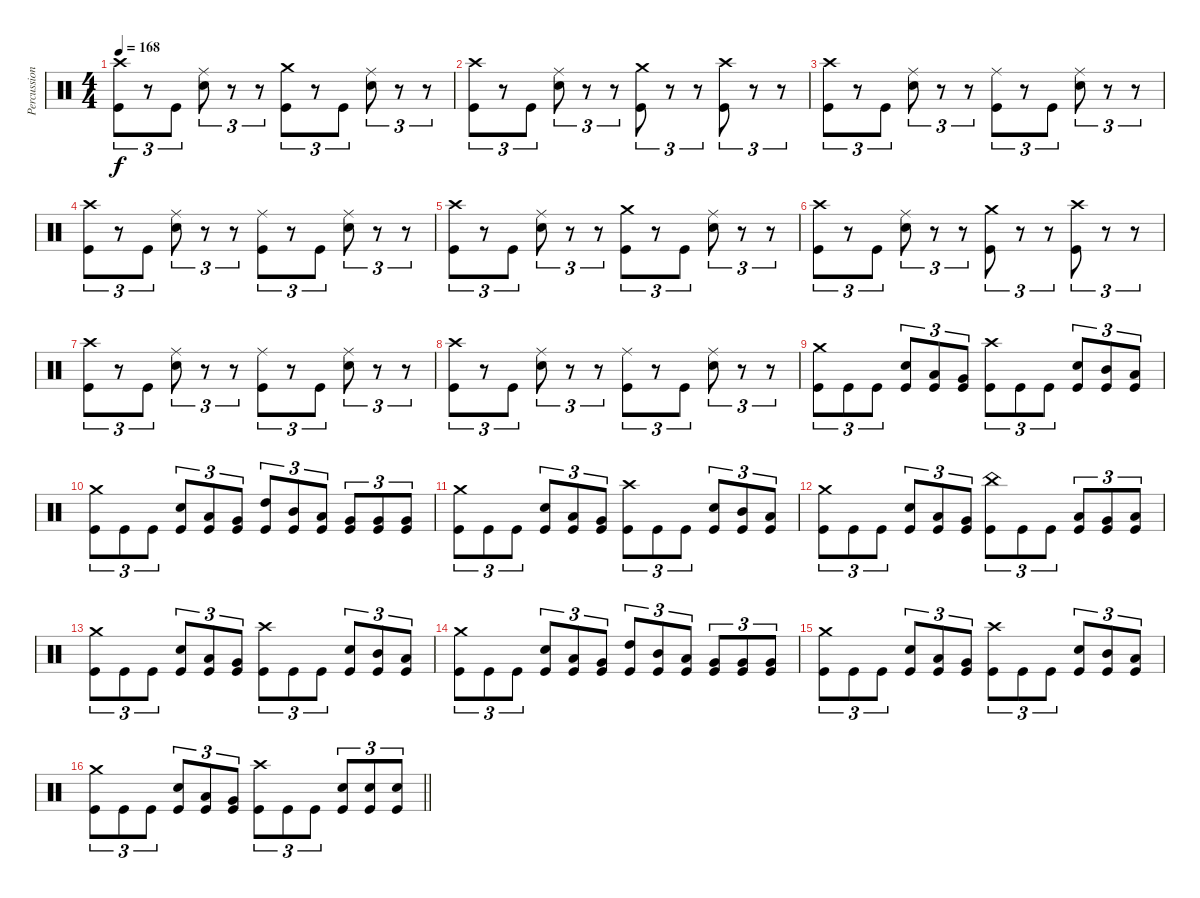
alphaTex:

\track ("Percussion" "Percussion") {instrument percussion}
\staff {score}
\articulation defaults
\ts (4 4)
\tempo 168
\clef neutral
\ks c
("Crash high (hit)" "Kick (hit)").8{tu (3 2) dy f} r.8{tu (3 2)} "Kick (hit)".8{tu (3 2)} ("Ride (middle)" "Electric Snare (hit)").8{tu (3 2)} r.8{tu (3 2)} r.8{tu (3 2)} ("Crash medium (hit)" "Kick (hit)").8{tu (3 2)} r.8{tu (3 2)} "Kick (hit)".8{tu (3 2)} ("Ride (middle)" "Electric Snare (hit)").8{tu (3 2)} r.8{tu (3 2)} r.8{tu (3 2)} |
("Crash high (hit)" "Kick (hit)").8{tu (3 2)} r.8{tu (3 2)} "Kick (hit)".8{tu (3 2)} ("Ride (middle)" "Electric Snare (hit)").8{tu (3 2)} r.8{tu (3 2)} r.8{tu (3 2)} ("Crash medium (hit)" "Kick (hit)").8{tu (3 2)} r.8{tu (3 2)} r.8{tu (3 2)} ("Crash high (hit)" "Kick (hit)").8{tu (3 2)} r.8{tu (3 2)} r.8{tu (3 2)} |
("Crash high (hit)" "Kick (hit)").8{tu (3 2)} r.8{tu (3 2)} "Kick (hit)".8{tu (3 2)} ("Ride (middle)" "Electric Snare (hit)").8{tu (3 2)} r.8{tu (3 2)} r.8{tu (3 2)} ("Ride (middle)" "Kick (hit)").8{tu (3 2)} r.8{tu (3 2)} "Kick (hit)".8{tu (3 2)} ("Ride (middle)" "Electric Snare (hit)").8{tu (3 2)} r.8{tu (3 2)} r.8{tu (3 2)} |
("Crash high (hit)" "Kick (hit)").8{tu (3 2)} r.8{tu (3 2)} "Kick (hit)".8{tu (3 2)} ("Ride (middle)" "Electric Snare (hit)").8{tu (3 2)} r.8{tu (3 2)} r.8{tu (3 2)} ("Ride (middle)" "Kick (hit)").8{tu (3 2)} r.8{tu (3 2)} "Kick (hit)".8{tu (3 2)} ("Ride (middle)" "Electric Snare (hit)").8{tu (3 2)} r.8{tu (3 2)} r.8{tu (3 2)} |
("Crash high (hit)" "Kick (hit)").8{tu (3 2)} r.8{tu (3 2)} "Kick (hit)".8{tu (3 2)} ("Ride (middle)" "Electric Snare (hit)").8{tu (3 2)} r.8{tu (3 2)} r.8{tu (3 2)} ("Crash medium (hit)" "Kick (hit)").8{tu (3 2)} r.8{tu (3 2)} "Kick (hit)".8{tu (3 2)} ("Ride (middle)" "Electric Snare (hit)").8{tu (3 2)} r.8{tu (3 2)} r.8{tu (3 2)} |
("Crash high (hit)" "Kick (hit)").8{tu (3 2)} r.8{tu (3 2)} "Kick (hit)".8{tu (3 2)} ("Ride (middle)" "Electric Snare (hit)").8{tu (3 2)} r.8{tu (3 2)} r.8{tu (3 2)} ("Crash medium (hit)" "Kick (hit)").8{tu (3 2)} r.8{tu (3 2)} r.8{tu (3 2)} ("Crash high (hit)" "Kick (hit)").8{tu (3 2)} r.8{tu (3 2)} r.8{tu (3 2)} |
("Crash high (hit)" "Kick (hit)").8{tu (3 2)} r.8{tu (3 2)} "Kick (hit)".8{tu (3 2)} ("Ride (middle)" "Electric Snare (hit)").8{tu (3 2)} r.8{tu (3 2)} r.8{tu (3 2)} ("Ride (middle)" "Kick (hit)").8{tu (3 2)} r.8{tu (3 2)} "Kick (hit)".8{tu (3 2)} ("Ride (middle)" "Electric Snare (hit)").8{tu (3 2)} r.8{tu (3 2)} r.8{tu (3 2)} |
("Crash high (hit)" "Kick (hit)").8{tu (3 2)} r.8{tu (3 2)} "Kick (hit)".8{tu (3 2)} ("Ride (middle)" "Electric Snare (hit)").8{tu (3 2)} r.8{tu (3 2)} r.8{tu (3 2)} ("Ride (middle)" "Kick (hit)").8{tu (3 2)} r.8{tu (3 2)} "Kick (hit)".8{tu (3 2)} ("Ride (middle)" "Electric Snare (hit)").8{tu (3 2)} r.8{tu (3 2)} r.8{tu (3 2)} |
("Crash medium (hit)" "Kick (hit)").8{tu (3 2)} "Kick (hit)".8{tu (3 2)} "Kick (hit)".8{tu (3 2)} ("Electric Snare (hit)" "Kick (hit)").8{tu (3 2)} ("Low Tom (hit)" "Kick (hit)").8{tu (3 2)} ("Very Low Tom (hit)" "Kick (hit)").8{tu (3 2)} ("Crash high (hit)" "Kick (hit)").8{tu (3 2)} "Kick (hit)".8{tu (3 2)} "Kick (hit)".8{tu (3 2)} ("Electric Snare (hit)" "Kick (hit)").8{tu (3 2)} ("Mid Tom (hit)" "Kick (hit)").8{tu (3 2)} ("Low Tom (hit)" "Kick (hit)").8{tu (3 2)} |
("Crash medium (hit)" "Kick (hit)").8{tu (3 2)} "Kick (hit)".8{tu (3 2)} "Kick (hit)".8{tu (3 2)} ("Electric Snare (hit)" "Kick (hit)").8{tu (3 2)} ("Low Tom (hit)" "Kick (hit)").8{tu (3 2)} ("Very Low Tom (hit)" "Kick (hit)").8{tu (3 2)} ("High Tom (hit)" "Kick (hit)").8{tu (3 2)} ("Mid Tom (hit)" "Kick (hit)").8{tu (3 2)} ("Low Tom (hit)" "Kick (hit)").8{tu (3 2)} ("Very Low Tom (hit)" "Kick (hit)").8{tu (3 2)} ("Very Low Tom (hit)" "Kick (hit)").8{tu (3 2)} ("Very Low Tom (hit)" "Kick (hit)").8{tu (3 2)} |
("Crash medium (hit)" "Kick (hit)").8{tu (3 2)} "Kick (hit)".8{tu (3 2)} "Kick (hit)".8{tu (3 2)} ("Electric Snare (hit)" "Kick (hit)").8{tu (3 2)} ("Low Tom (hit)" "Kick (hit)").8{tu (3 2)} ("Very Low Tom (hit)" "Kick (hit)").8{tu (3 2)} ("Crash high (hit)" "Kick (hit)").8{tu (3 2)} "Kick (hit)".8{tu (3 2)} "Kick (hit)".8{tu (3 2)} ("Electric Snare (hit)" "Kick (hit)").8{tu (3 2)} ("Mid Tom (hit)" "Kick (hit)").8{tu (3 2)} ("Low Tom (hit)" "Kick (hit)").8{tu (3 2)} |
("Crash medium (hit)" "Kick (hit)").8{tu (3 2)} "Kick (hit)".8{tu (3 2)} "Kick (hit)".8{tu (3 2)} ("Electric Snare (hit)" "Kick (hit)").8{tu (3 2)} ("Low Tom (hit)" "Kick (hit)").8{tu (3 2)} ("Very Low Tom (hit)" "Kick (hit)").8{tu (3 2)} ("China (hit)" "Kick (hit)").8{tu (3 2)} "Kick (hit)".8{tu (3 2)} "Kick (hit)".8{tu (3 2)} ("Low Tom (hit)" "Kick (hit)").8{tu (3 2)} ("Very Low Tom (hit)" "Kick (hit)").8{tu (3 2)} ("Low Floor Tom (hit)" "Kick (hit)").8{tu (3 2)} |
("Crash medium (hit)" "Kick (hit)").8{tu (3 2)} "Kick (hit)".8{tu (3 2)} "Kick (hit)".8{tu (3 2)} ("Electric Snare (hit)" "Kick (hit)").8{tu (3 2)} ("Low Tom (hit)" "Kick (hit)").8{tu (3 2)} ("Very Low Tom (hit)" "Kick (hit)").8{tu (3 2)} ("Crash high (hit)" "Kick (hit)").8{tu (3 2)} "Kick (hit)".8{tu (3 2)} "Kick (hit)".8{tu (3 2)} ("Electric Snare (hit)" "Kick (hit)").8{tu (3 2)} ("Mid Tom (hit)" "Kick (hit)").8{tu (3 2)} ("Low Tom (hit)" "Kick (hit)").8{tu (3 2)} |
("Crash medium (hit)" "Kick (hit)").8{tu (3 2)} "Kick (hit)".8{tu (3 2)} "Kick (hit)".8{tu (3 2)} ("Electric Snare (hit)" "Kick (hit)").8{tu (3 2)} ("Low Tom (hit)" "Kick (hit)").8{tu (3 2)} ("Very Low Tom (hit)" "Kick (hit)").8{tu (3 2)} ("High Tom (hit)" "Kick (hit)").8{tu (3 2)} ("Mid Tom (hit)" "Kick (hit)").8{tu (3 2)} ("Low Tom (hit)" "Kick (hit)").8{tu (3 2)} ("Very Low Tom (hit)" "Kick (hit)").8{tu (3 2)} ("Very Low Tom (hit)" "Kick (hit)").8{tu (3 2)} ("Very Low Tom (hit)" "Kick (hit)").8{tu (3 2)} |
("Crash medium (hit)" "Kick (hit)").8{tu (3 2)} "Kick (hit)".8{tu (3 2)} "Kick (hit)".8{tu (3 2)} ("Electric Snare (hit)" "Kick (hit)").8{tu (3 2)} ("Low Tom (hit)" "Kick (hit)").8{tu (3 2)} ("Very Low Tom (hit)" "Kick (hit)").8{tu (3 2)} ("Crash high (hit)" "Kick (hit)").8{tu (3 2)} "Kick (hit)".8{tu (3 2)} "Kick (hit)".8{tu (3 2)} ("Electric Snare (hit)" "Kick (hit)").8{tu (3 2)} ("Mid Tom (hit)" "Kick (hit)").8{tu (3 2)} ("Low Tom (hit)" "Kick (hit)").8{tu (3 2)} |
\barLineRight lightlight
("Crash medium (hit)" "Kick (hit)").8{tu (3 2)} "Kick (hit)".8{tu (3 2)} "Kick (hit)".8{tu (3 2)} ("Electric Snare (hit)" "Kick (hit)").8{tu (3 2)} ("Low Tom (hit)" "Kick (hit)").8{tu (3 2)} ("Very Low Tom (hit)" "Kick (hit)").8{tu (3 2)} ("Crash high (hit)" "Kick (hit)").8{tu (3 2)} "Kick (hit)".8{tu (3 2)} "Kick (hit)".8{tu (3 2)} ("Electric Snare (hit)" "Kick (hit)").8{tu (3 2)} ("Electric Snare (hit)" "Kick (hit)").8{tu (3 2)} ("Electric Snare (hit)" "Kick (hit)").8{tu (3 2)}
